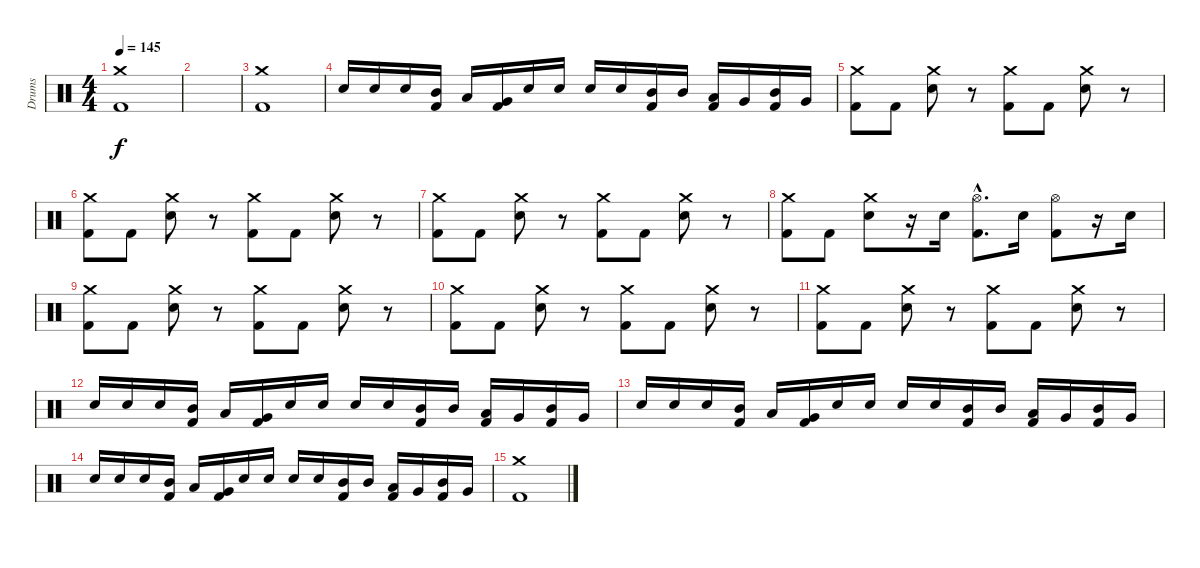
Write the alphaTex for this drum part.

\track ("Drums" "Drums") {instrument percussion}
\staff {score}
\articulation defaults
\ts (4 4)
\tempo 145
\clef neutral
\ks c
("Crash medium (hit)" "Kick (hit) 2").1{dy f} |
|
("Crash medium (hit)" "Kick (hit) 2").1 |
"Snare (hit) 2".16 "Snare (hit) 2".16 "Snare (hit) 2".16 ("Mid Tom (hit)" "Kick (hit) 2").16 "Low Tom (hit)".16 ("Very Low Tom (hit)" "Kick (hit) 2").16 "Snare (hit) 2".16 "Snare (hit) 2".16 "Snare (hit) 2".16 "Snare (hit) 2".16 ("Mid Tom (hit)" "Kick (hit) 2").16 "Mid Tom (hit)".16 ("Low Tom (hit)" "Kick (hit) 2").16 "Very Low Tom (hit)".16 ("Mid Tom (hit)" "Kick (hit) 2").16 "Very Low Tom (hit)".16 |
("Crash medium (hit)" "Kick (hit) 2").8 "Kick (hit) 2".8 ("Crash medium (hit)" "Snare (hit) 2").8 r.8 ("Crash medium (hit)" "Kick (hit) 2").8 "Kick (hit) 2".8 ("Crash medium (hit)" "Snare (hit) 2").8 r.8 |
("Crash medium (hit)" "Kick (hit) 2").8 "Kick (hit) 2".8 ("Crash medium (hit)" "Snare (hit) 2").8 r.8 ("Crash medium (hit)" "Kick (hit) 2").8 "Kick (hit) 2".8 ("Crash medium (hit)" "Snare (hit) 2").8 r.8 |
("Crash medium (hit)" "Kick (hit) 2").8 "Kick (hit) 2".8 ("Crash medium (hit)" "Snare (hit) 2").8 r.8 ("Crash medium (hit)" "Kick (hit) 2").8 "Kick (hit) 2".8 ("Crash medium (hit)" "Snare (hit) 2").8 r.8 |
("Crash medium (hit)" "Kick (hit) 2").8 "Kick (hit) 2".8 ("Crash medium (hit)" "Snare (hit) 2").8 r.16 "Snare (hit) 2".16 ("Hi-Hat (open)"{hac} "Kick (hit) 2"{hac}).8{d} "Snare (hit) 2".16 ("Hi-Hat (open)" "Kick (hit) 2").8 r.16 "Snare (hit) 2".16 |
("Crash medium (hit)" "Kick (hit) 2").8 "Kick (hit) 2".8 ("Crash medium (hit)" "Snare (hit) 2").8 r.8 ("Crash medium (hit)" "Kick (hit) 2").8 "Kick (hit) 2".8 ("Crash medium (hit)" "Snare (hit) 2").8 r.8 |
("Crash medium (hit)" "Kick (hit) 2").8 "Kick (hit) 2".8 ("Crash medium (hit)" "Snare (hit) 2").8 r.8 ("Crash medium (hit)" "Kick (hit) 2").8 "Kick (hit) 2".8 ("Crash medium (hit)" "Snare (hit) 2").8 r.8 |
("Crash medium (hit)" "Kick (hit) 2").8 "Kick (hit) 2".8 ("Crash medium (hit)" "Snare (hit) 2").8 r.8 ("Crash medium (hit)" "Kick (hit) 2").8 "Kick (hit) 2".8 ("Crash medium (hit)" "Snare (hit) 2").8 r.8 |
"Snare (hit) 2".16 "Snare (hit) 2".16 "Snare (hit) 2".16 ("Mid Tom (hit)" "Kick (hit) 2").16 "Low Tom (hit)".16 ("Very Low Tom (hit)" "Kick (hit) 2").16 "Snare (hit) 2".16 "Snare (hit) 2".16 "Snare (hit) 2".16 "Snare (hit) 2".16 ("Mid Tom (hit)" "Kick (hit) 2").16 "Mid Tom (hit)".16 ("Low Tom (hit)" "Kick (hit) 2").16 "Very Low Tom (hit)".16 ("Mid Tom (hit)" "Kick (hit) 2").16 "Very Low Tom (hit)".16 |
"Snare (hit) 2".16 "Snare (hit) 2".16 "Snare (hit) 2".16 ("Mid Tom (hit)" "Kick (hit) 2").16 "Low Tom (hit)".16 ("Very Low Tom (hit)" "Kick (hit) 2").16 "Snare (hit) 2".16 "Snare (hit) 2".16 "Snare (hit) 2".16 "Snare (hit) 2".16 ("Mid Tom (hit)" "Kick (hit) 2").16 "Mid Tom (hit)".16 ("Low Tom (hit)" "Kick (hit) 2").16 "Very Low Tom (hit)".16 ("Mid Tom (hit)" "Kick (hit) 2").16 "Very Low Tom (hit)".16 |
"Snare (hit) 2".16 "Snare (hit) 2".16 "Snare (hit) 2".16 ("Mid Tom (hit)" "Kick (hit) 2").16 "Low Tom (hit)".16 ("Very Low Tom (hit)" "Kick (hit) 2").16 "Snare (hit) 2".16 "Snare (hit) 2".16 "Snare (hit) 2".16 "Snare (hit) 2".16 ("Mid Tom (hit)" "Kick (hit) 2").16 "Mid Tom (hit)".16 ("Low Tom (hit)" "Kick (hit) 2").16 "Very Low Tom (hit)".16 ("Mid Tom (hit)" "Kick (hit) 2").16 "Very Low Tom (hit)".16 |
("Crash medium (hit)" "Kick (hit) 2").1
